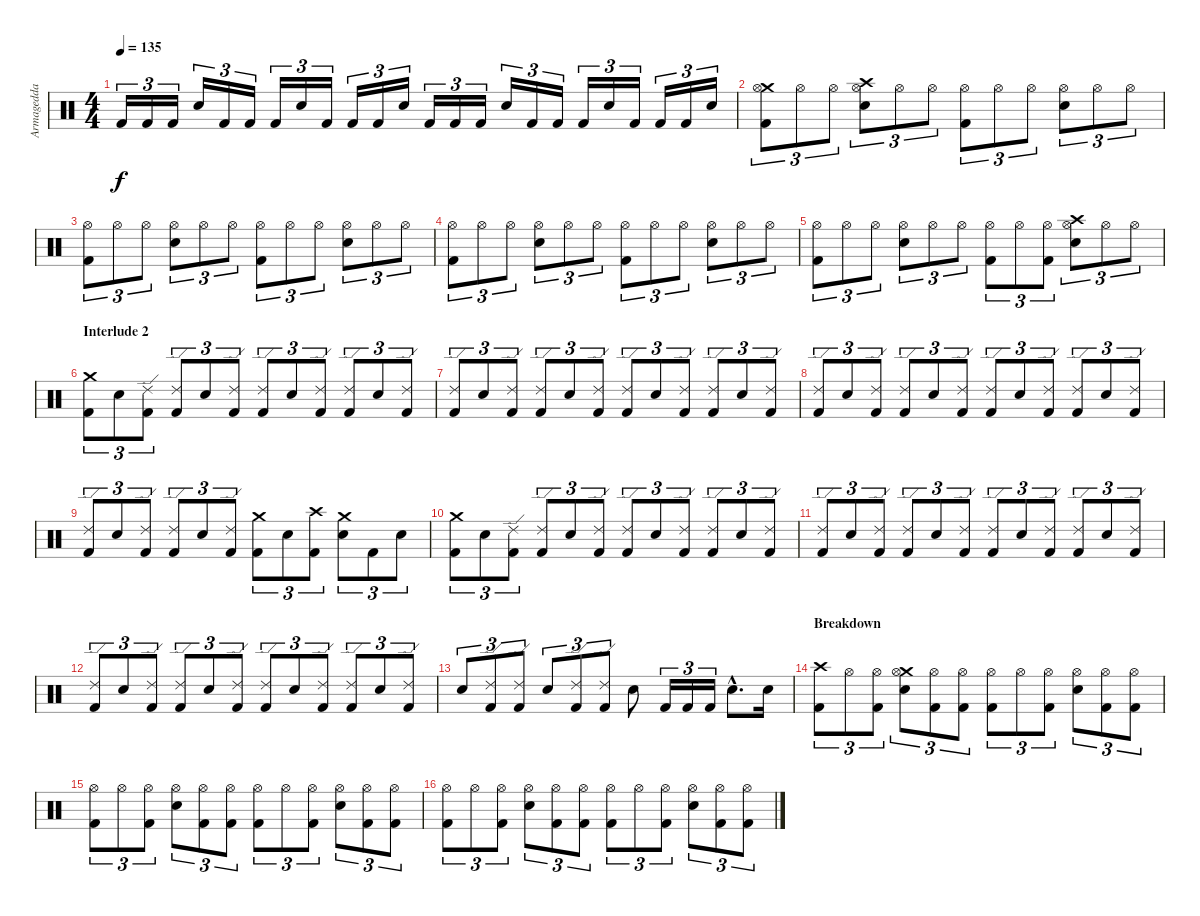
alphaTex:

\track ("Armagedda" "Armagedda") {instrument percussion}
\staff {score}
\articulation defaults
\ts (4 4)
\tempo 135
\clef neutral
\ks c "Kick (hit) 2".16{tu (3 2) dy f} "Kick (hit) 2".16{tu (3 2)} "Kick (hit) 2".16{tu (3 2)} "Electric Snare (hit)".16{tu (3 2)} "Kick (hit) 2".16{tu (3 2)} "Kick (hit) 2".16{tu (3 2)} "Kick (hit) 2".16{tu (3 2)} "Electric Snare (hit)".16{tu (3 2)} "Kick (hit) 2".16{tu (3 2)} "Kick (hit) 2".16{tu (3 2)} "Kick (hit) 2".16{tu (3 2)} "Electric Snare (hit)".16{tu (3 2)} "Kick (hit) 2".16{tu (3 2)} "Kick (hit) 2".16{tu (3 2)} "Kick (hit) 2".16{tu (3 2)} "Electric Snare (hit)".16{tu (3 2)} "Kick (hit) 2".16{tu (3 2)} "Kick (hit) 2".16{tu (3 2)} "Kick (hit) 2".16{tu (3 2)} "Electric Snare (hit)".16{tu (3 2)} "Kick (hit) 2".16{tu (3 2)} "Kick (hit) 2".16{tu (3 2)} "Kick (hit) 2".16{tu (3 2)} "Electric Snare (hit)".16{tu (3 2)}
|
("Crash medium (hit)" "Hi-Hat (open)" "Kick (hit) 2").8{tu (3 2)} "Hi-Hat (open)".8{tu (3 2)} "Hi-Hat (open)".8{tu (3 2)} ("Crash high (hit)" "Hi-Hat (open)" "Electric Snare (hit)").8{tu (3 2)} "Hi-Hat (open)".8{tu (3 2)} "Hi-Hat (open)".8{tu (3 2)} ("Hi-Hat (open)" "Kick (hit) 2").8{tu (3 2)} "Hi-Hat (open)".8{tu (3 2)} "Hi-Hat (open)".8{tu (3 2)} ("Hi-Hat (open)" "Electric Snare (hit)").8{tu (3 2)} "Hi-Hat (open)".8{tu (3 2)} "Hi-Hat (open)".8{tu (3 2)} |
("Hi-Hat (open)" "Kick (hit) 2").8{tu (3 2)} "Hi-Hat (open)".8{tu (3 2)} "Hi-Hat (open)".8{tu (3 2)} ("Hi-Hat (open)" "Electric Snare (hit)").8{tu (3 2)} "Hi-Hat (open)".8{tu (3 2)} "Hi-Hat (open)".8{tu (3 2)} ("Hi-Hat (open)" "Kick (hit) 2").8{tu (3 2)} "Hi-Hat (open)".8{tu (3 2)} "Hi-Hat (open)".8{tu (3 2)} ("Hi-Hat (open)" "Electric Snare (hit)").8{tu (3 2)} "Hi-Hat (open)".8{tu (3 2)} "Hi-Hat (open)".8{tu (3 2)} |
("Hi-Hat (open)" "Kick (hit) 2").8{tu (3 2)} "Hi-Hat (open)".8{tu (3 2)} "Hi-Hat (open)".8{tu (3 2)} ("Hi-Hat (open)" "Electric Snare (hit)").8{tu (3 2)} "Hi-Hat (open)".8{tu (3 2)} "Hi-Hat (open)".8{tu (3 2)} ("Hi-Hat (open)" "Kick (hit) 2").8{tu (3 2)} "Hi-Hat (open)".8{tu (3 2)} "Hi-Hat (open)".8{tu (3 2)} ("Hi-Hat (open)" "Electric Snare (hit)").8{tu (3 2)} "Hi-Hat (open)".8{tu (3 2)} "Hi-Hat (open)".8{tu (3 2)} |
("Hi-Hat (open)" "Kick (hit) 2").8{tu (3 2)} "Hi-Hat (open)".8{tu (3 2)} "Hi-Hat (open)".8{tu (3 2)} ("Hi-Hat (open)" "Electric Snare (hit)").8{tu (3 2)} "Hi-Hat (open)".8{tu (3 2)} "Hi-Hat (open)".8{tu (3 2)} ("Hi-Hat (open)" "Kick (hit) 2").8{tu (3 2)} "Hi-Hat (open)".8{tu (3 2)} ("Hi-Hat (open)" "Kick (hit) 2").8{tu (3 2)} ("Crash high (hit)" "Hi-Hat (open)" "Electric Snare (hit)").8{tu (3 2)} "Hi-Hat (open)".8{tu (3 2)} "Hi-Hat (open)".8{tu (3 2)} |
\section ("" "Interlude 2")
("Crash medium (hit)" "Kick (hit) 2").8{tu (3 2)} "Electric Snare (hit)".8{tu (3 2)} ("Ride (edge) 2" "Kick (hit) 2").8{tu (3 2)} ("Ride (edge) 2" "Kick (hit) 2").8{tu (3 2)} "Electric Snare (hit)".8{tu (3 2)} ("Ride (edge) 2" "Kick (hit) 2").8{tu (3 2)} ("Ride (edge) 2" "Kick (hit) 2").8{tu (3 2)} "Electric Snare (hit)".8{tu (3 2)} ("Ride (edge) 2" "Kick (hit) 2").8{tu (3 2)} ("Ride (edge) 2" "Kick (hit) 2").8{tu (3 2)} "Electric Snare (hit)".8{tu (3 2)} ("Ride (edge) 2" "Kick (hit) 2").8{tu (3 2)} |
("Ride (edge) 2" "Kick (hit) 2").8{tu (3 2)} "Electric Snare (hit)".8{tu (3 2)} ("Ride (edge) 2" "Kick (hit) 2").8{tu (3 2)} ("Ride (edge) 2" "Kick (hit) 2").8{tu (3 2)} "Electric Snare (hit)".8{tu (3 2)} ("Ride (edge) 2" "Kick (hit) 2").8{tu (3 2)} ("Ride (edge) 2" "Kick (hit) 2").8{tu (3 2)} "Electric Snare (hit)".8{tu (3 2)} ("Ride (edge) 2" "Kick (hit) 2").8{tu (3 2)} ("Ride (edge) 2" "Kick (hit) 2").8{tu (3 2)} "Electric Snare (hit)".8{tu (3 2)} ("Ride (edge) 2" "Kick (hit) 2").8{tu (3 2)} |
("Ride (edge) 2" "Kick (hit) 2").8{tu (3 2)} "Electric Snare (hit)".8{tu (3 2)} ("Ride (edge) 2" "Kick (hit) 2").8{tu (3 2)} ("Ride (edge) 2" "Kick (hit) 2").8{tu (3 2)} "Electric Snare (hit)".8{tu (3 2)} ("Ride (edge) 2" "Kick (hit) 2").8{tu (3 2)} ("Ride (edge) 2" "Kick (hit) 2").8{tu (3 2)} "Electric Snare (hit)".8{tu (3 2)} ("Ride (edge) 2" "Kick (hit) 2").8{tu (3 2)} ("Ride (edge) 2" "Kick (hit) 2").8{tu (3 2)} "Electric Snare (hit)".8{tu (3 2)} ("Ride (edge) 2" "Kick (hit) 2").8{tu (3 2)} |
("Ride (edge) 2" "Kick (hit) 2").8{tu (3 2)} "Electric Snare (hit)".8{tu (3 2)} ("Ride (edge) 2" "Kick (hit) 2").8{tu (3 2)} ("Ride (edge) 2" "Kick (hit) 2").8{tu (3 2)} "Electric Snare (hit)".8{tu (3 2)} ("Ride (edge) 2" "Kick (hit) 2").8{tu (3 2)} ("Crash medium (hit)" "Kick (hit) 2").8{tu (3 2)} "Electric Snare (hit)".8{tu (3 2)} ("Crash high (hit)" "Kick (hit) 2").8{tu (3 2)} ("Crash medium (hit)" "Electric Snare (hit)").8{tu (3 2)} "Kick (hit) 2".8{tu (3 2)} "Electric Snare (hit)".8{tu (3 2)} |
("Crash medium (hit)" "Kick (hit) 2").8{tu (3 2)} "Electric Snare (hit)".8{tu (3 2)} ("Ride (edge) 2" "Kick (hit) 2").8{tu (3 2)} ("Ride (edge) 2" "Kick (hit) 2").8{tu (3 2)} "Electric Snare (hit)".8{tu (3 2)} ("Ride (edge) 2" "Kick (hit) 2").8{tu (3 2)} ("Ride (edge) 2" "Kick (hit) 2").8{tu (3 2)} "Electric Snare (hit)".8{tu (3 2)} ("Ride (edge) 2" "Kick (hit) 2").8{tu (3 2)} ("Ride (edge) 2" "Kick (hit) 2").8{tu (3 2)} "Electric Snare (hit)".8{tu (3 2)} ("Ride (edge) 2" "Kick (hit) 2").8{tu (3 2)} |
("Ride (edge) 2" "Kick (hit) 2").8{tu (3 2)} "Electric Snare (hit)".8{tu (3 2)} ("Ride (edge) 2" "Kick (hit) 2").8{tu (3 2)} ("Ride (edge) 2" "Kick (hit) 2").8{tu (3 2)} "Electric Snare (hit)".8{tu (3 2)} ("Ride (edge) 2" "Kick (hit) 2").8{tu (3 2)} ("Ride (edge) 2" "Kick (hit) 2").8{tu (3 2)} "Electric Snare (hit)".8{tu (3 2)} ("Ride (edge) 2" "Kick (hit) 2").8{tu (3 2)} ("Ride (edge) 2" "Kick (hit) 2").8{tu (3 2)} "Electric Snare (hit)".8{tu (3 2)} ("Ride (edge) 2" "Kick (hit) 2").8{tu (3 2)} |
("Ride (edge) 2" "Kick (hit) 2").8{tu (3 2)} "Electric Snare (hit)".8{tu (3 2)} ("Ride (edge) 2" "Kick (hit) 2").8{tu (3 2)} ("Ride (edge) 2" "Kick (hit) 2").8{tu (3 2)} "Electric Snare (hit)".8{tu (3 2)} ("Ride (edge) 2" "Kick (hit) 2").8{tu (3 2)} ("Ride (edge) 2" "Kick (hit) 2").8{tu (3 2)} "Electric Snare (hit)".8{tu (3 2)} ("Ride (edge) 2" "Kick (hit) 2").8{tu (3 2)} ("Ride (edge) 2" "Kick (hit) 2").8{tu (3 2)} "Electric Snare (hit)".8{tu (3 2)} ("Ride (edge) 2" "Kick (hit) 2").8{tu (3 2)} |
"Electric Snare (hit)".8{tu (3 2)} ("Ride (edge) 2" "Kick (hit) 2").8{tu (3 2)} ("Ride (edge) 2" "Kick (hit) 2").8{tu (3 2)} "Electric Snare (hit)".8{tu (3 2)} ("Ride (edge) 2" "Kick (hit) 2").8{tu (3 2)} ("Ride (edge) 2" "Kick (hit) 2").8{tu (3 2)} "Electric Snare (hit)".8 "Kick (hit) 2".16{tu (3 2)} "Kick (hit) 2".16{tu (3 2)} "Kick (hit) 2".16{tu (3 2)} "Electric Snare (hit)"{hac}.8{d} "Electric Snare (hit)".16 |
\section ("" "Breakdown")
("Crash high (hit)" "Kick (hit) 2").8{tu (3 2)} "Hi-Hat (open)".8{tu (3 2)} ("Hi-Hat (open)" "Kick (hit) 2").8{tu (3 2)} ("Crash medium (hit)" "Hi-Hat (open)" "Electric Snare (hit)").8{tu (3 2)} ("Hi-Hat (open)" "Kick (hit) 2").8{tu (3 2)} ("Hi-Hat (open)" "Kick (hit) 2").8{tu (3 2)} ("Hi-Hat (open)" "Kick (hit) 2").8{tu (3 2)} "Hi-Hat (open)".8{tu (3 2)} ("Hi-Hat (open)" "Kick (hit) 2").8{tu (3 2)} ("Hi-Hat (open)" "Electric Snare (hit)").8{tu (3 2)} ("Hi-Hat (open)" "Kick (hit) 2").8{tu (3 2)} ("Hi-Hat (open)" "Kick (hit) 2").8{tu (3 2)} |
("Hi-Hat (open)" "Kick (hit) 2").8{tu (3 2)} "Hi-Hat (open)".8{tu (3 2)} ("Hi-Hat (open)" "Kick (hit) 2").8{tu (3 2)} ("Hi-Hat (open)" "Electric Snare (hit)").8{tu (3 2)} ("Hi-Hat (open)" "Kick (hit) 2").8{tu (3 2)} ("Hi-Hat (open)" "Kick (hit) 2").8{tu (3 2)} ("Hi-Hat (open)" "Kick (hit) 2").8{tu (3 2)} "Hi-Hat (open)".8{tu (3 2)} ("Hi-Hat (open)" "Kick (hit) 2").8{tu (3 2)} ("Hi-Hat (open)" "Electric Snare (hit)").8{tu (3 2)} ("Hi-Hat (open)" "Kick (hit) 2").8{tu (3 2)} ("Hi-Hat (open)" "Kick (hit) 2").8{tu (3 2)} |
("Hi-Hat (open)" "Kick (hit) 2").8{tu (3 2)} "Hi-Hat (open)".8{tu (3 2)} ("Hi-Hat (open)" "Kick (hit) 2").8{tu (3 2)} ("Hi-Hat (open)" "Electric Snare (hit)").8{tu (3 2)} ("Hi-Hat (open)" "Kick (hit) 2").8{tu (3 2)} ("Hi-Hat (open)" "Kick (hit) 2").8{tu (3 2)} ("Hi-Hat (open)" "Kick (hit) 2").8{tu (3 2)} "Hi-Hat (open)".8{tu (3 2)} ("Hi-Hat (open)" "Kick (hit) 2").8{tu (3 2)} ("Hi-Hat (open)" "Electric Snare (hit)").8{tu (3 2)} ("Hi-Hat (open)" "Kick (hit) 2").8{tu (3 2)} ("Hi-Hat (open)" "Kick (hit) 2").8{tu (3 2)}
